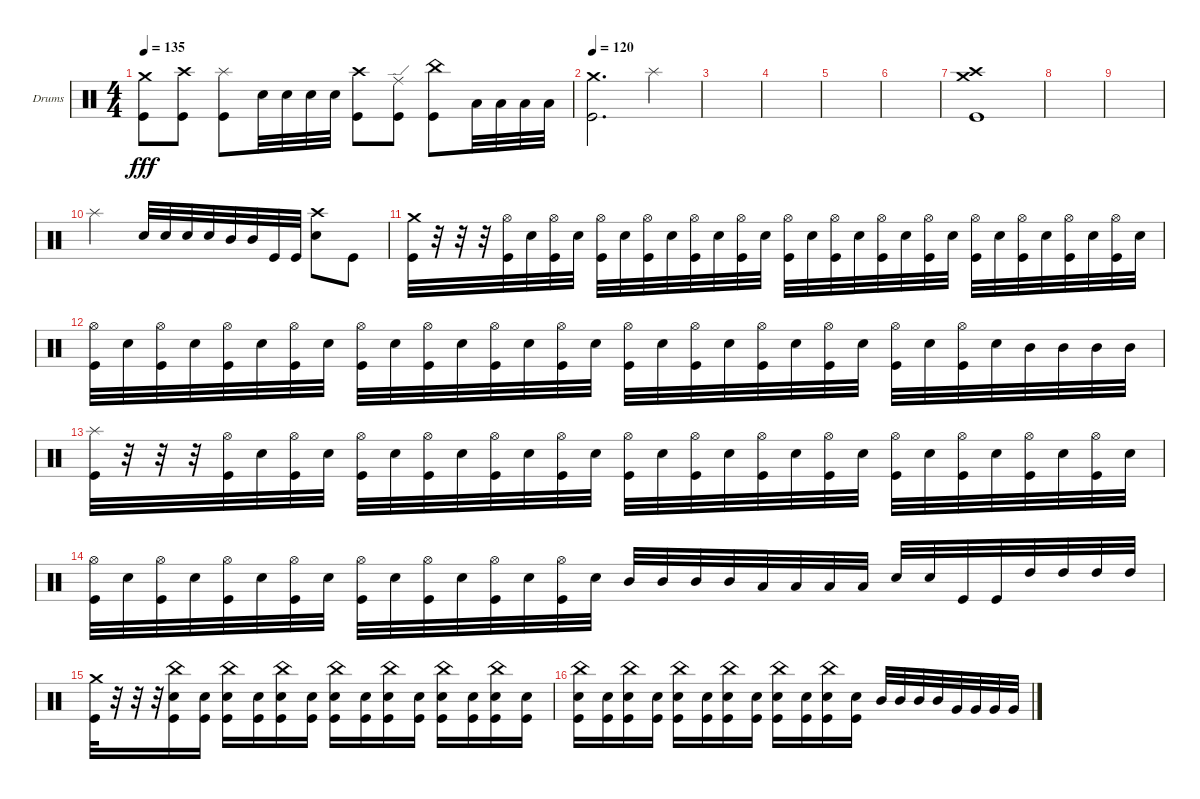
\bracketExtendMode groupsimilarinstruments
\firstSystemTrackNameOrientation horizontal
\otherSystemsTrackNameOrientation horizontal
\track ("Drumkit" "Drums") {instrument percussion}
\staff {score}
\articulation defaults
\ts (4 4)
\tempo 135
\clef neutral
\ks c
("Kick (hit)" "Crash medium (hit)").8{dy fff} ("Kick (hit)" "Crash high (hit)").8 ("Kick (hit)" "Splash (hit)").8 "Snare (hit) 2".32 "Snare (hit) 2".32 "Snare (hit) 2".32 "Snare (hit) 2".32 ("Kick (hit)" "Crash high (hit)").8 ("Kick (hit)" "Ride (edge)").8 ("Kick (hit)" "China (hit)").8 "Low Tom (hit)".32 "Low Tom (hit)".32 "Low Tom (hit)".32 "Low Tom (hit)".32 |
\tempo 120
("Kick (hit)" "Crash medium (hit)").2{d} "Splash (hit)".4 |
|
|
|
|
("Kick (hit)" "Crash medium (hit)" "Crash high (hit)").1 |
|
|
"Splash (hit)".2 "Snare (hit) 2".32 "Snare (hit) 2".32 "Snare (hit) 2".32 "Snare (hit) 2".32 "Mid Tom (hit)".32 "Mid Tom (hit)".32 "Kick (hit)".32 "Kick (hit)".32 ("Snare (hit) 2" "Crash high (hit)").8 "Kick (hit)".8 |
("Kick (hit)" "Crash medium (hit)").32 r.32 r.32 r.32 ("Kick (hit)" "Hi-Hat (open)").32 "Snare (hit) 2".32 ("Kick (hit)" "Hi-Hat (open)").32 "Snare (hit) 2".32 ("Kick (hit)" "Hi-Hat (open)").32 "Snare (hit) 2".32 ("Kick (hit)" "Hi-Hat (open)").32 "Snare (hit) 2".32 ("Kick (hit)" "Hi-Hat (open)").32 "Snare (hit) 2".32 ("Kick (hit)" "Hi-Hat (open)").32 "Snare (hit) 2".32 ("Kick (hit)" "Hi-Hat (open)").32 "Snare (hit) 2".32 ("Kick (hit)" "Hi-Hat (open)").32 "Snare (hit) 2".32 ("Kick (hit)" "Hi-Hat (open)").32 "Snare (hit) 2".32 ("Kick (hit)" "Hi-Hat (open)").32 "Snare (hit) 2".32 ("Kick (hit)" "Hi-Hat (open)").32 "Snare (hit) 2".32 ("Kick (hit)" "Hi-Hat (open)").32 "Snare (hit) 2".32 ("Kick (hit)" "Hi-Hat (open)").32 "Snare (hit) 2".32 ("Kick (hit)" "Hi-Hat (open)").32 "Snare (hit) 2".32 |
("Kick (hit)" "Hi-Hat (open)").32 "Snare (hit) 2".32 ("Kick (hit)" "Hi-Hat (open)").32 "Snare (hit) 2".32 ("Kick (hit)" "Hi-Hat (open)").32 "Snare (hit) 2".32 ("Kick (hit)" "Hi-Hat (open)").32 "Snare (hit) 2".32 ("Kick (hit)" "Hi-Hat (open)").32 "Snare (hit) 2".32 ("Kick (hit)" "Hi-Hat (open)").32 "Snare (hit) 2".32 ("Kick (hit)" "Hi-Hat (open)").32 "Snare (hit) 2".32 ("Kick (hit)" "Hi-Hat (open)").32 "Snare (hit) 2".32 ("Kick (hit)" "Hi-Hat (open)").32 "Snare (hit) 2".32 ("Kick (hit)" "Hi-Hat (open)").32 "Snare (hit) 2".32 ("Kick (hit)" "Hi-Hat (open)").32 "Snare (hit) 2".32 ("Kick (hit)" "Hi-Hat (open)").32 "Snare (hit) 2".32 ("Kick (hit)" "Hi-Hat (open)").32 "Snare (hit) 2".32 ("Kick (hit)" "Hi-Hat (open)").32 "Snare (hit) 2".32 "Mid Tom (hit)".32 "Mid Tom (hit)".32 "Mid Tom (hit)".32 "Mid Tom (hit)".32 |
("Splash (hit)" "Kick (hit)").32 r.32 r.32 r.32 ("Kick (hit)" "Hi-Hat (open)").32 "Snare (hit) 2".32 ("Kick (hit)" "Hi-Hat (open)").32 "Snare (hit) 2".32 ("Kick (hit)" "Hi-Hat (open)").32 "Snare (hit) 2".32 ("Kick (hit)" "Hi-Hat (open)").32 "Snare (hit) 2".32 ("Kick (hit)" "Hi-Hat (open)").32 "Snare (hit) 2".32 ("Kick (hit)" "Hi-Hat (open)").32 "Snare (hit) 2".32 ("Kick (hit)" "Hi-Hat (open)").32 "Snare (hit) 2".32 ("Kick (hit)" "Hi-Hat (open)").32 "Snare (hit) 2".32 ("Kick (hit)" "Hi-Hat (open)").32 "Snare (hit) 2".32 ("Kick (hit)" "Hi-Hat (open)").32 "Snare (hit) 2".32 ("Kick (hit)" "Hi-Hat (open)").32 "Snare (hit) 2".32 ("Kick (hit)" "Hi-Hat (open)").32 "Snare (hit) 2".32 ("Kick (hit)" "Hi-Hat (open)").32 "Snare (hit) 2".32 ("Kick (hit)" "Hi-Hat (open)").32 "Snare (hit) 2".32 |
("Kick (hit)" "Hi-Hat (open)").32 "Snare (hit) 2".32 ("Kick (hit)" "Hi-Hat (open)").32 "Snare (hit) 2".32 ("Kick (hit)" "Hi-Hat (open)").32 "Snare (hit) 2".32 ("Kick (hit)" "Hi-Hat (open)").32 "Snare (hit) 2".32 ("Kick (hit)" "Hi-Hat (open)").32 "Snare (hit) 2".32 ("Kick (hit)" "Hi-Hat (open)").32 "Snare (hit) 2".32 ("Kick (hit)" "Hi-Hat (open)").32 "Snare (hit) 2".32 ("Kick (hit)" "Hi-Hat (open)").32 "Snare (hit) 2".32 "Mid Tom (hit)".32 "Mid Tom (hit)".32 "Mid Tom (hit)".32 "Mid Tom (hit)".32 "Low Tom (hit)".32 "Low Tom (hit)".32 "Low Tom (hit)".32 "Low Tom (hit)".32 "Snare (hit) 2".32 "Snare (hit) 2".32 "Kick (hit)".32 "Kick (hit)".32 "High Tom (hit)".32 "High Tom (hit)".32 "High Tom (hit)".32 "High Tom (hit)".32 |
("Kick (hit)" "Crash medium (hit)").32 r.32 r.32 r.32 ("Snare (hit) 2" "Kick (hit)" "China (hit)").16 ("Snare (hit) 2" "Kick (hit)").16 ("Snare (hit) 2" "Kick (hit)" "China (hit)").16 ("Snare (hit) 2" "Kick (hit)").16 ("Snare (hit) 2" "Kick (hit)" "China (hit)").16 ("Snare (hit) 2" "Kick (hit)").16 ("Snare (hit) 2" "Kick (hit)" "China (hit)").16 ("Snare (hit) 2" "Kick (hit)").16 ("Snare (hit) 2" "Kick (hit)" "China (hit)").16 ("Snare (hit) 2" "Kick (hit)").16 ("Snare (hit) 2" "Kick (hit)" "China (hit)").16 ("Snare (hit) 2" "Kick (hit)").16 ("Snare (hit) 2" "Kick (hit)" "China (hit)").16 ("Snare (hit) 2" "Kick (hit)").16 |
("Snare (hit) 2" "Kick (hit)" "China (hit)").16 ("Snare (hit) 2" "Kick (hit)").16 ("Snare (hit) 2" "Kick (hit)" "China (hit)").16 ("Snare (hit) 2" "Kick (hit)").16 ("Snare (hit) 2" "Kick (hit)" "China (hit)").16 ("Snare (hit) 2" "Kick (hit)").16 ("Snare (hit) 2" "Kick (hit)" "China (hit)").16 ("Snare (hit) 2" "Kick (hit)").16 ("Snare (hit) 2" "Kick (hit)" "China (hit)").16 ("Snare (hit) 2" "Kick (hit)").16 ("Snare (hit) 2" "Kick (hit)" "China (hit)").16 ("Snare (hit) 2" "Kick (hit)").16 "Mid Tom (hit)".32 "Mid Tom (hit)".32 "Mid Tom (hit)".32 "Mid Tom (hit)".32 "Very Low Tom (hit)".32 "Very Low Tom (hit)".32 "Very Low Tom (hit)".32 "Very Low Tom (hit)".32
